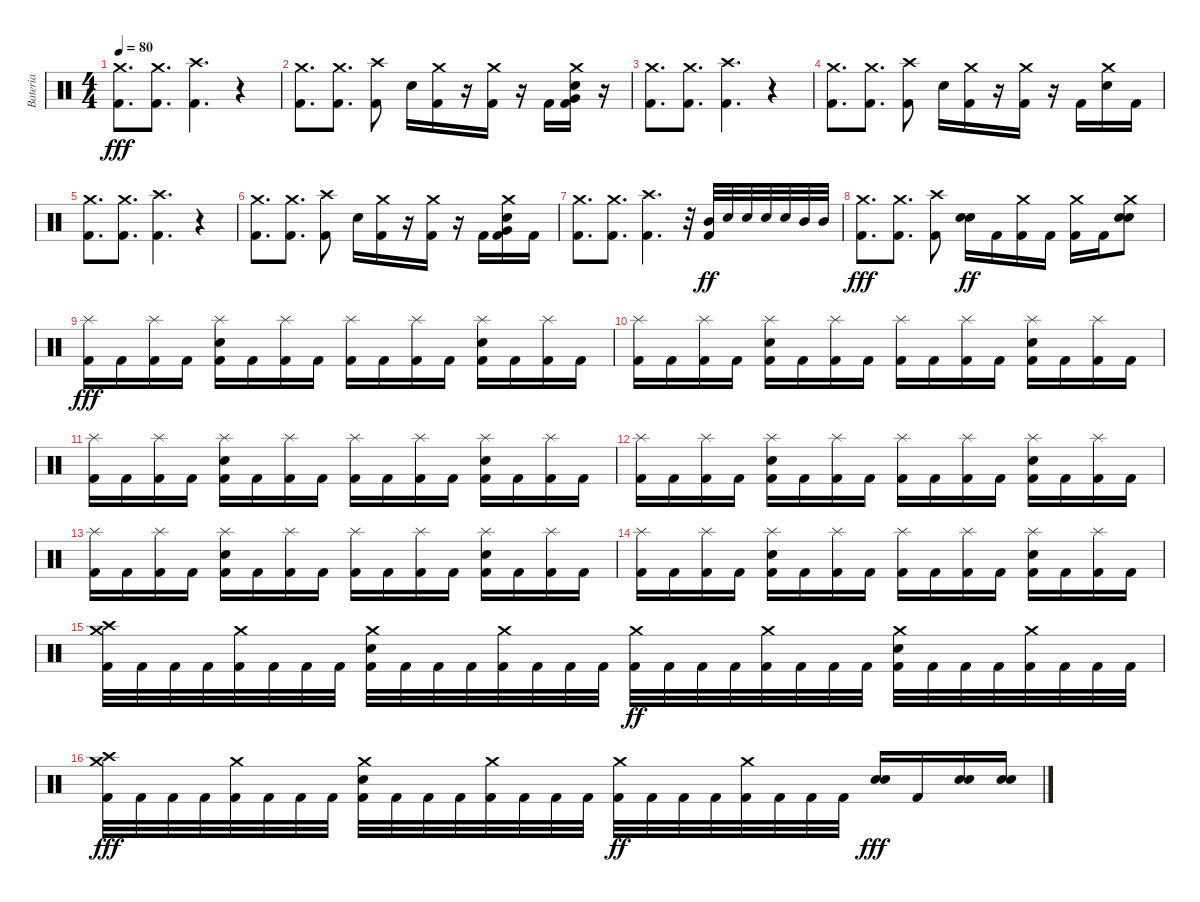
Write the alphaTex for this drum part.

\track ("Bateria" "Bateria") {instrument percussion}
\staff {score}
\articulation defaults
\ts (4 4)
\tempo 80
\clef neutral
\ks c
("Crash medium (hit)" "Kick (hit) 2").8{d dy fff} ("Crash medium (hit)" "Kick (hit) 2").8{d} ("Crash high (hit)" "Kick (hit) 2").4{d} r.4 |
("Crash medium (hit)" "Kick (hit) 2").8{d} ("Crash medium (hit)" "Kick (hit) 2").8{d} ("Crash high (hit)" "Kick (hit) 2").8 "Electric Snare (hit)".16 ("Crash medium (hit)" "Kick (hit) 2").16 r.16 ("Crash medium (hit)" "Kick (hit) 2").16 r.16 "Kick (hit) 2".16 ("Crash medium (hit)" "Very Low Tom (hit)" "Electric Snare (hit)" "Kick (hit) 2").16 r.16 |
("Crash medium (hit)" "Kick (hit) 2").8{d} ("Crash medium (hit)" "Kick (hit) 2").8{d} ("Crash high (hit)" "Kick (hit) 2").4{d} r.4 |
("Crash medium (hit)" "Kick (hit) 2").8{d} ("Crash medium (hit)" "Kick (hit) 2").8{d} ("Crash high (hit)" "Kick (hit) 2").8 "Electric Snare (hit)".16 ("Crash medium (hit)" "Kick (hit) 2").16 r.16 ("Crash medium (hit)" "Kick (hit) 2").16 r.16 "Kick (hit) 2".16 ("Crash medium (hit)" "Electric Snare (hit)").16 "Kick (hit) 2".16 |
("Crash medium (hit)" "Kick (hit) 2").8{d} ("Crash medium (hit)" "Kick (hit) 2").8{d} ("Crash high (hit)" "Kick (hit) 2").4{d} r.4 |
("Crash medium (hit)" "Kick (hit) 2").8{d} ("Crash medium (hit)" "Kick (hit) 2").8{d} ("Crash high (hit)" "Kick (hit) 2").8 "Electric Snare (hit)".16 ("Crash medium (hit)" "Kick (hit) 2").16 r.16 ("Crash medium (hit)" "Kick (hit) 2").16 r.16 "Kick (hit) 2".16 ("Crash medium (hit)" "Very Low Tom (hit)" "Electric Snare (hit)" "Kick (hit) 2").16 "Kick (hit) 2".16 |
("Crash medium (hit)" "Kick (hit) 2").8{d} ("Crash medium (hit)" "Kick (hit) 2").8{d} ("Crash high (hit)" "Kick (hit) 2").4{d} r.32 ("Mid Tom (hit)" "Kick (hit) 2").32{dy ff} "Electric Snare (hit)".32 "Electric Snare (hit)".32 "Electric Snare (hit)".32 "Electric Snare (hit)".32 "Mid Tom (hit)".32 "Mid Tom (hit)".32 |
("Crash medium (hit)" "Kick (hit) 2").8{d dy fff} ("Crash medium (hit)" "Kick (hit) 2").8{d} ("Crash high (hit)" "Kick (hit) 2").8 ("Electric Snare (hit)" "Electric Snare (hit)").16{dy ff} "Kick (hit) 2".16 ("Crash medium (hit)" "Kick (hit) 2").16 "Kick (hit) 2".16 ("Crash medium (hit)" "Kick (hit) 2").16 "Kick (hit) 2".16 ("Crash medium (hit)" "Electric Snare (hit)" "Electric Snare (hit)").8 |
("Splash (hit)" "Kick (hit) 2").16{dy fff} "Kick (hit) 2".16 ("Splash (hit)" "Kick (hit) 2").16 "Kick (hit) 2".16 ("Splash (hit)" "Electric Snare (hit)" "Kick (hit) 2").16 "Kick (hit) 2".16 ("Splash (hit)" "Kick (hit) 2").16 "Kick (hit) 2".16 ("Splash (hit)" "Kick (hit) 2").16 "Kick (hit) 2".16 ("Splash (hit)" "Kick (hit) 2").16 "Kick (hit) 2".16 ("Splash (hit)" "Electric Snare (hit)" "Kick (hit) 2").16 "Kick (hit) 2".16 ("Splash (hit)" "Kick (hit) 2").16 "Kick (hit) 2".16 |
("Splash (hit)" "Kick (hit) 2").16 "Kick (hit) 2".16 ("Splash (hit)" "Kick (hit) 2").16 "Kick (hit) 2".16 ("Splash (hit)" "Electric Snare (hit)" "Kick (hit) 2").16 "Kick (hit) 2".16 ("Splash (hit)" "Kick (hit) 2").16 "Kick (hit) 2".16 ("Splash (hit)" "Kick (hit) 2").16 "Kick (hit) 2".16 ("Splash (hit)" "Kick (hit) 2").16 "Kick (hit) 2".16 ("Splash (hit)" "Electric Snare (hit)" "Kick (hit) 2").16 "Kick (hit) 2".16 ("Splash (hit)" "Kick (hit) 2").16 "Kick (hit) 2".16 |
("Splash (hit)" "Kick (hit) 2").16 "Kick (hit) 2".16 ("Splash (hit)" "Kick (hit) 2").16 "Kick (hit) 2".16 ("Splash (hit)" "Electric Snare (hit)" "Kick (hit) 2").16 "Kick (hit) 2".16 ("Splash (hit)" "Kick (hit) 2").16 "Kick (hit) 2".16 ("Splash (hit)" "Kick (hit) 2").16 "Kick (hit) 2".16 ("Splash (hit)" "Kick (hit) 2").16 "Kick (hit) 2".16 ("Splash (hit)" "Electric Snare (hit)" "Kick (hit) 2").16 "Kick (hit) 2".16 ("Splash (hit)" "Kick (hit) 2").16 "Kick (hit) 2".16 |
("Splash (hit)" "Kick (hit) 2").16 "Kick (hit) 2".16 ("Splash (hit)" "Kick (hit) 2").16 "Kick (hit) 2".16 ("Splash (hit)" "Electric Snare (hit)" "Kick (hit) 2").16 "Kick (hit) 2".16 ("Splash (hit)" "Kick (hit) 2").16 "Kick (hit) 2".16 ("Splash (hit)" "Kick (hit) 2").16 "Kick (hit) 2".16 ("Splash (hit)" "Kick (hit) 2").16 "Kick (hit) 2".16 ("Splash (hit)" "Electric Snare (hit)" "Kick (hit) 2").16 "Kick (hit) 2".16 ("Splash (hit)" "Kick (hit) 2").16 "Kick (hit) 2".16 |
("Splash (hit)" "Kick (hit) 2").16 "Kick (hit) 2".16 ("Splash (hit)" "Kick (hit) 2").16 "Kick (hit) 2".16 ("Splash (hit)" "Electric Snare (hit)" "Kick (hit) 2").16 "Kick (hit) 2".16 ("Splash (hit)" "Kick (hit) 2").16 "Kick (hit) 2".16 ("Splash (hit)" "Kick (hit) 2").16 "Kick (hit) 2".16 ("Splash (hit)" "Kick (hit) 2").16 "Kick (hit) 2".16 ("Splash (hit)" "Electric Snare (hit)" "Kick (hit) 2").16 "Kick (hit) 2".16 ("Splash (hit)" "Kick (hit) 2").16 "Kick (hit) 2".16 |
("Splash (hit)" "Kick (hit) 2").16 "Kick (hit) 2".16 ("Splash (hit)" "Kick (hit) 2").16 "Kick (hit) 2".16 ("Splash (hit)" "Electric Snare (hit)" "Kick (hit) 2").16 "Kick (hit) 2".16 ("Splash (hit)" "Kick (hit) 2").16 "Kick (hit) 2".16 ("Splash (hit)" "Kick (hit) 2").16 "Kick (hit) 2".16 ("Splash (hit)" "Kick (hit) 2").16 "Kick (hit) 2".16 ("Splash (hit)" "Electric Snare (hit)" "Kick (hit) 2").16 "Kick (hit) 2".16 ("Splash (hit)" "Kick (hit) 2").16 "Kick (hit) 2".16 |
("Crash medium (hit)" "Crash high (hit)" "Kick (hit) 2").32 "Kick (hit) 2".32 "Kick (hit) 2".32 "Kick (hit) 2".32 ("Crash medium (hit)" "Kick (hit) 2").32 "Kick (hit) 2".32 "Kick (hit) 2".32 "Kick (hit) 2".32 ("Crash medium (hit)" "Electric Snare (hit)" "Kick (hit) 2").32 "Kick (hit) 2".32 "Kick (hit) 2".32 "Kick (hit) 2".32 ("Crash medium (hit)" "Kick (hit) 2").32 "Kick (hit) 2".32 "Kick (hit) 2".32 "Kick (hit) 2".32 ("Crash medium (hit)" "Kick (hit) 2").32{dy ff} "Kick (hit) 2".32 "Kick (hit) 2".32 "Kick (hit) 2".32 ("Crash medium (hit)" "Kick (hit) 2").32 "Kick (hit) 2".32 "Kick (hit) 2".32 "Kick (hit) 2".32 ("Crash medium (hit)" "Electric Snare (hit)" "Kick (hit) 2").32 "Kick (hit) 2".32 "Kick (hit) 2".32 "Kick (hit) 2".32 ("Crash medium (hit)" "Kick (hit) 2").32 "Kick (hit) 2".32 "Kick (hit) 2".32 "Kick (hit) 2".32 |
("Crash medium (hit)" "Crash high (hit)" "Kick (hit) 2").32{dy fff} "Kick (hit) 2".32 "Kick (hit) 2".32 "Kick (hit) 2".32 ("Crash medium (hit)" "Kick (hit) 2").32 "Kick (hit) 2".32 "Kick (hit) 2".32 "Kick (hit) 2".32 ("Crash medium (hit)" "Electric Snare (hit)" "Kick (hit) 2").32 "Kick (hit) 2".32 "Kick (hit) 2".32 "Kick (hit) 2".32 ("Crash medium (hit)" "Kick (hit) 2").32 "Kick (hit) 2".32 "Kick (hit) 2".32 "Kick (hit) 2".32 ("Crash medium (hit)" "Kick (hit) 2").32{dy ff} "Kick (hit) 2".32 "Kick (hit) 2".32 "Kick (hit) 2".32 ("Crash medium (hit)" "Kick (hit) 2").32 "Kick (hit) 2".32 "Kick (hit) 2".32 "Kick (hit) 2".32 ("Electric Snare (hit)" "Electric Snare (hit)").16{dy fff} "Kick (hit) 2".16 ("Electric Snare (hit)" "Electric Snare (hit)").16 ("Electric Snare (hit)" "Electric Snare (hit)").16
